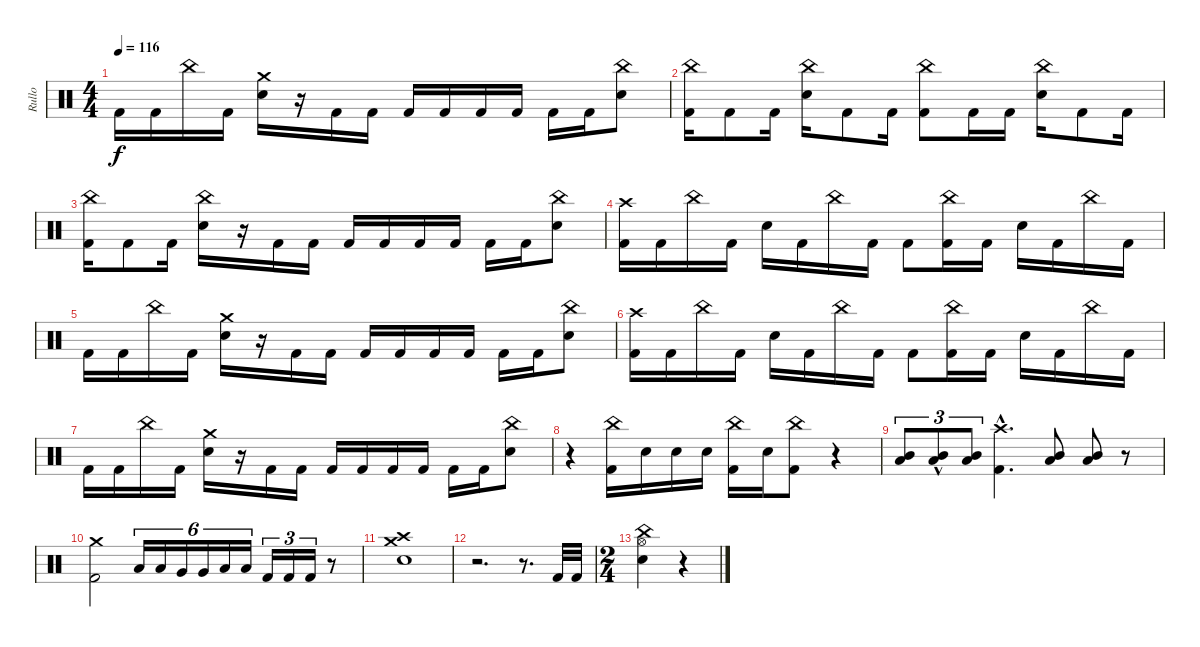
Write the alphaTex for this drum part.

\track ("Rullo" "Rullo") {instrument percussion}
\staff {score}
\articulation defaults
\ts (4 4)
\tempo 116
\clef neutral
\ks c "Kick (hit) 2".16{dy f} "Kick (hit) 2".16 "China (hit)".16 "Kick (hit) 2".16
("Crash medium (hit)" "Electric Snare (hit)").16 r.16 "Kick (hit) 2".16 "Kick (hit) 2".16 "Kick (hit) 2".16 "Kick (hit) 2".16 "Kick (hit) 2".16 "Kick (hit) 2".16 "Kick (hit) 2".16 "Kick (hit) 2".16 ("China (hit)" "Electric Snare (hit)").8 |
("China (hit)" "Kick (hit) 2").16 "Kick (hit) 2".8 "Kick (hit) 2".16 ("China (hit)" "Electric Snare (hit)").16 "Kick (hit) 2".8 "Kick (hit) 2".16 ("China (hit)" "Kick (hit) 2").8 "Kick (hit) 2".16 "Kick (hit) 2".16 ("China (hit)" "Electric Snare (hit)").16 "Kick (hit) 2".8 "Kick (hit) 2".16 |
("China (hit)" "Kick (hit) 2").16 "Kick (hit) 2".8 "Kick (hit) 2".16 ("China (hit)" "Electric Snare (hit)").16 r.16 "Kick (hit) 2".16 "Kick (hit) 2".16 "Kick (hit) 2".16 "Kick (hit) 2".16 "Kick (hit) 2".16 "Kick (hit) 2".16 "Kick (hit) 2".16 "Kick (hit) 2".16 ("China (hit)" "Electric Snare (hit)").8 |
("Crash high (hit)" "Kick (hit) 2").16 "Kick (hit) 2".16 "China (hit)".16 "Kick (hit) 2".16 "Electric Snare (hit)".16 "Kick (hit) 2".16 "China (hit)".16 "Kick (hit) 2".16 "Kick (hit) 2".8 ("China (hit)" "Kick (hit) 2").16 "Kick (hit) 2".16 "Electric Snare (hit)".16 "Kick (hit) 2".16 "China (hit)".16 "Kick (hit) 2".16 |
"Kick (hit) 2".16 "Kick (hit) 2".16 "China (hit)".16 "Kick (hit) 2".16 ("Crash medium (hit)" "Electric Snare (hit)").16 r.16 "Kick (hit) 2".16 "Kick (hit) 2".16 "Kick (hit) 2".16 "Kick (hit) 2".16 "Kick (hit) 2".16 "Kick (hit) 2".16 "Kick (hit) 2".16 "Kick (hit) 2".16 ("China (hit)" "Electric Snare (hit)").8 |
("Crash high (hit)" "Kick (hit) 2").16 "Kick (hit) 2".16 "China (hit)".16 "Kick (hit) 2".16 "Electric Snare (hit)".16 "Kick (hit) 2".16 "China (hit)".16 "Kick (hit) 2".16 "Kick (hit) 2".8 ("China (hit)" "Kick (hit) 2").16 "Kick (hit) 2".16 "Electric Snare (hit)".16 "Kick (hit) 2".16 "China (hit)".16 "Kick (hit) 2".16 |
"Kick (hit) 2".16 "Kick (hit) 2".16 "China (hit)".16 "Kick (hit) 2".16 ("Crash medium (hit)" "Electric Snare (hit)").16 r.16 "Kick (hit) 2".16 "Kick (hit) 2".16 "Kick (hit) 2".16 "Kick (hit) 2".16 "Kick (hit) 2".16 "Kick (hit) 2".16 "Kick (hit) 2".16 "Kick (hit) 2".16 ("China (hit)" "Electric Snare (hit)").8 |
r.4 ("China (hit)" "Kick (hit) 2").16 "Electric Snare (hit)".16 "Electric Snare (hit)".16 "Electric Snare (hit)".16 ("China (hit)" "Kick (hit) 2").16 "Electric Snare (hit)".16 ("China (hit)" "Kick (hit) 2").8 r.4 |
("Mid Tom (hit)" "Low Tom (hit)").8{tu (3 2)} ("Mid Tom (hit)"{hac} "Low Tom (hit)").8{tu (3 2)} ("Mid Tom (hit)" "Low Tom (hit)").8{tu (3 2)} ("Crash high (hit)"{hac} "Kick (hit) 2"{hac}).4{d} ("Mid Tom (hit)" "Low Tom (hit)").8 ("Mid Tom (hit)" "Low Tom (hit)").8 r.8 |
("Crash medium (hit)" "Kick (hit) 2").2 "Low Tom (hit)".16{tu (6 4)} "Low Tom (hit)".16{tu (6 4)} "Very Low Tom (hit)".16{tu (6 4)} "Very Low Tom (hit)".16{tu (6 4)} "Low Floor Tom (hit)".16{tu (6 4)} "Low Floor Tom (hit)".16{tu (6 4)} "Kick (hit) 2".16{tu (3 2)} "Kick (hit) 2".16{tu (3 2)} "Kick (hit) 2".16{tu (3 2)} r.8 |
("Crash high (hit)" "Crash medium (hit)" "Electric Snare (hit)").1 |
r.2{d} r.8{d} "Kick (hit) 2".32 "Kick (hit) 2".32 |
\ts (2 4)
("China (hit)" "Hi-Hat (open)" "Electric Snare (hit)").4 r.4
